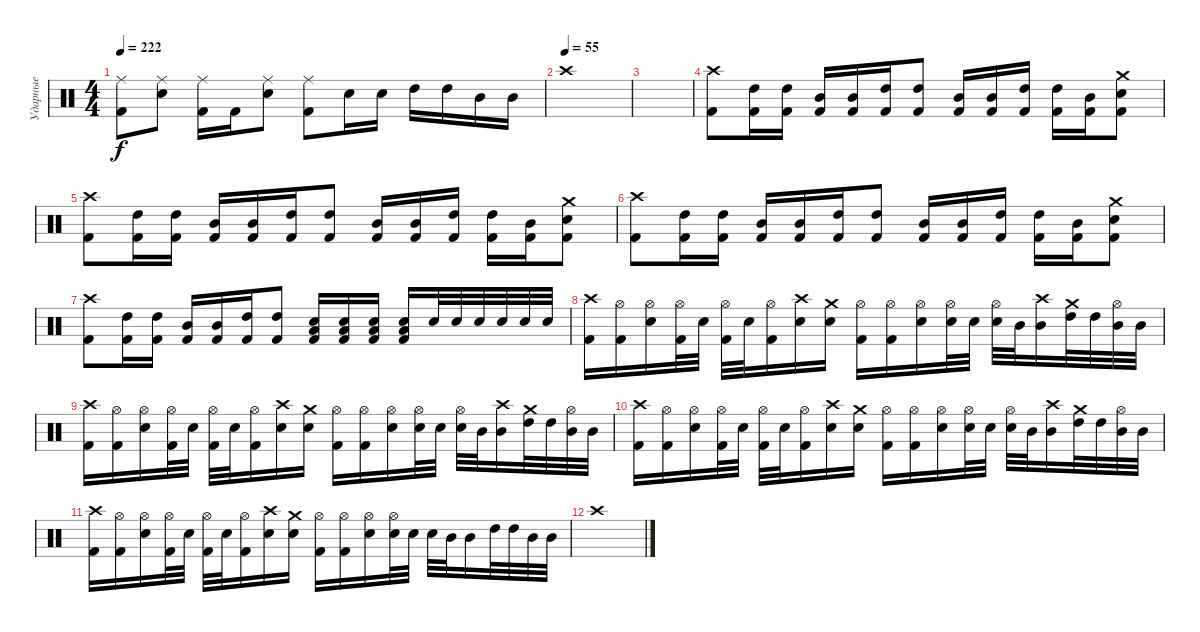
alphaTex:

\track ("Ударные" "Ударные") {instrument percussion}
\staff {score}
\articulation defaults
\ts (4 4)
\tempo 222
\clef neutral
\ks c
("Ride (middle)" "Kick (hit) 2").8{dy f} ("Ride (middle)" "Electric Snare (hit)").8 ("Ride (middle)" "Kick (hit) 2").16 "Kick (hit) 2".16 ("Ride (middle)" "Electric Snare (hit)").8 ("Ride (middle)" "Kick (hit) 2").8 "Electric Snare (hit)".16 "Electric Snare (hit)".16 "High Tom (hit)".16 "High Tom (hit)".16 "Mid Tom (hit)".16 "Mid Tom (hit)".16 |
\tempo (55)
"Crash high (hit)".1 |
|
("Crash high (hit)" "Kick (hit) 2").8 ("High Tom (hit)" "Kick (hit) 2").16 ("High Tom (hit)" "Kick (hit) 2").16 ("Mid Tom (hit)" "Kick (hit) 2").16 ("Mid Tom (hit)" "Kick (hit) 2").16 ("High Tom (hit)" "Kick (hit) 2").16 ("High Tom (hit)" "Kick (hit) 2").8 ("Mid Tom (hit)" "Kick (hit) 2").16 ("Mid Tom (hit)" "Kick (hit) 2").16 ("High Tom (hit)" "Kick (hit) 2").16 ("High Tom (hit)" "Kick (hit) 2").16 ("Mid Tom (hit)" "Kick (hit) 2").16 ("Crash medium (hit)" "Electric Snare (hit)" "Kick (hit) 2").8 |
("Crash high (hit)" "Kick (hit) 2").8 ("High Tom (hit)" "Kick (hit) 2").16 ("High Tom (hit)" "Kick (hit) 2").16 ("Mid Tom (hit)" "Kick (hit) 2").16 ("Mid Tom (hit)" "Kick (hit) 2").16 ("High Tom (hit)" "Kick (hit) 2").16 ("High Tom (hit)" "Kick (hit) 2").8 ("Mid Tom (hit)" "Kick (hit) 2").16 ("Mid Tom (hit)" "Kick (hit) 2").16 ("High Tom (hit)" "Kick (hit) 2").16 ("High Tom (hit)" "Kick (hit) 2").16 ("Mid Tom (hit)" "Kick (hit) 2").16 ("Crash medium (hit)" "Electric Snare (hit)" "Kick (hit) 2").8 |
("Crash high (hit)" "Kick (hit) 2").8 ("High Tom (hit)" "Kick (hit) 2").16 ("High Tom (hit)" "Kick (hit) 2").16 ("Mid Tom (hit)" "Kick (hit) 2").16 ("Mid Tom (hit)" "Kick (hit) 2").16 ("High Tom (hit)" "Kick (hit) 2").16 ("High Tom (hit)" "Kick (hit) 2").8 ("Mid Tom (hit)" "Kick (hit) 2").16 ("Mid Tom (hit)" "Kick (hit) 2").16 ("High Tom (hit)" "Kick (hit) 2").16 ("High Tom (hit)" "Kick (hit) 2").16 ("Mid Tom (hit)" "Kick (hit) 2").16 ("Crash medium (hit)" "Electric Snare (hit)" "Kick (hit) 2").8 |
("Crash high (hit)" "Kick (hit) 2").8 ("High Tom (hit)" "Kick (hit) 2").16 ("High Tom (hit)" "Kick (hit) 2").16 ("Mid Tom (hit)" "Kick (hit) 2").16 ("Mid Tom (hit)" "Kick (hit) 2").16 ("High Tom (hit)" "Kick (hit) 2").16 ("High Tom (hit)" "Kick (hit) 2").8 ("Electric Snare (hit)" "Low Floor Tom (hit)" "Kick (hit) 2").16 ("Electric Snare (hit)" "Low Floor Tom (hit)" "Kick (hit) 2").16 ("Electric Snare (hit)" "Low Floor Tom (hit)" "Kick (hit) 2").16 ("Electric Snare (hit)" "Low Floor Tom (hit)" "Kick (hit) 2").16 "Electric Snare (hit)".32 "Electric Snare (hit)".32 "Electric Snare (hit)".32 "Electric Snare (hit)".32 "Electric Snare (hit)".32 "Electric Snare (hit)".32 |
("Crash high (hit)" "Kick (hit) 2").16 ("Hi-Hat (open)" "Kick (hit) 2").16 ("Hi-Hat (open)" "Electric Snare (hit)").16 ("Hi-Hat (open)" "Kick (hit) 2").32 "Electric Snare (hit)".32 ("Hi-Hat (open)" "Kick (hit) 2").32 "Electric Snare (hit)".32 ("Hi-Hat (open)" "Kick (hit) 2").16 ("Crash high (hit)" "Electric Snare (hit)").16 ("Crash medium (hit)" "Electric Snare (hit)").16 ("Hi-Hat (open)" "Kick (hit) 2").16 ("Hi-Hat (open)" "Kick (hit) 2").16 ("Hi-Hat (open)" "Electric Snare (hit)").16 ("Hi-Hat (open)" "Electric Snare (hit)").32 "Electric Snare (hit)".32 ("Hi-Hat (open)" "Electric Snare (hit)").32 "Mid Tom (hit)".32 ("Crash high (hit)" "Mid Tom (hit)").16 ("Crash medium (hit)" "High Tom (hit)").32 "High Tom (hit)".32 ("Hi-Hat (open)" "Mid Tom (hit)").32 "Mid Tom (hit)".32 |
("Crash high (hit)" "Kick (hit) 2").16 ("Hi-Hat (open)" "Kick (hit) 2").16 ("Hi-Hat (open)" "Electric Snare (hit)").16 ("Hi-Hat (open)" "Kick (hit) 2").32 "Electric Snare (hit)".32 ("Hi-Hat (open)" "Kick (hit) 2").32 "Electric Snare (hit)".32 ("Hi-Hat (open)" "Kick (hit) 2").16 ("Crash high (hit)" "Electric Snare (hit)").16 ("Crash medium (hit)" "Electric Snare (hit)").16 ("Hi-Hat (open)" "Kick (hit) 2").16 ("Hi-Hat (open)" "Kick (hit) 2").16 ("Hi-Hat (open)" "Electric Snare (hit)").16 ("Hi-Hat (open)" "Electric Snare (hit)").32 "Electric Snare (hit)".32 ("Hi-Hat (open)" "Electric Snare (hit)").32 "Mid Tom (hit)".32 ("Crash high (hit)" "Mid Tom (hit)").16 ("Crash medium (hit)" "High Tom (hit)").32 "High Tom (hit)".32 ("Hi-Hat (open)" "Mid Tom (hit)").32 "Mid Tom (hit)".32 |
("Crash high (hit)" "Kick (hit) 2").16 ("Hi-Hat (open)" "Kick (hit) 2").16 ("Hi-Hat (open)" "Electric Snare (hit)").16 ("Hi-Hat (open)" "Kick (hit) 2").32 "Electric Snare (hit)".32 ("Hi-Hat (open)" "Kick (hit) 2").32 "Electric Snare (hit)".32 ("Hi-Hat (open)" "Kick (hit) 2").16 ("Crash high (hit)" "Electric Snare (hit)").16 ("Crash medium (hit)" "Electric Snare (hit)").16 ("Hi-Hat (open)" "Kick (hit) 2").16 ("Hi-Hat (open)" "Kick (hit) 2").16 ("Hi-Hat (open)" "Electric Snare (hit)").16 ("Hi-Hat (open)" "Electric Snare (hit)").32 "Electric Snare (hit)".32 ("Hi-Hat (open)" "Electric Snare (hit)").32 "Mid Tom (hit)".32 ("Crash high (hit)" "Mid Tom (hit)").16 ("Crash medium (hit)" "High Tom (hit)").32 "High Tom (hit)".32 ("Hi-Hat (open)" "Mid Tom (hit)").32 "Mid Tom (hit)".32 |
("Crash high (hit)" "Kick (hit) 2").16 ("Hi-Hat (open)" "Kick (hit) 2").16 ("Hi-Hat (open)" "Electric Snare (hit)").16 ("Hi-Hat (open)" "Kick (hit) 2").32 "Electric Snare (hit)".32 ("Hi-Hat (open)" "Kick (hit) 2").32 "Electric Snare (hit)".32 ("Hi-Hat (open)" "Kick (hit) 2").16 ("Crash high (hit)" "Electric Snare (hit)").16 ("Crash medium (hit)" "Electric Snare (hit)").16 ("Hi-Hat (open)" "Kick (hit) 2").16 ("Hi-Hat (open)" "Kick (hit) 2").16 ("Hi-Hat (open)" "Electric Snare (hit)").16 ("Hi-Hat (open)" "Electric Snare (hit)").32 "Electric Snare (hit)".32 "Electric Snare (hit)".32 "Mid Tom (hit)".32 "Mid Tom (hit)".16 "High Tom (hit)".32 "High Tom (hit)".32 "Mid Tom (hit)".32 "Mid Tom (hit)".32 |
"Crash high (hit)".1
